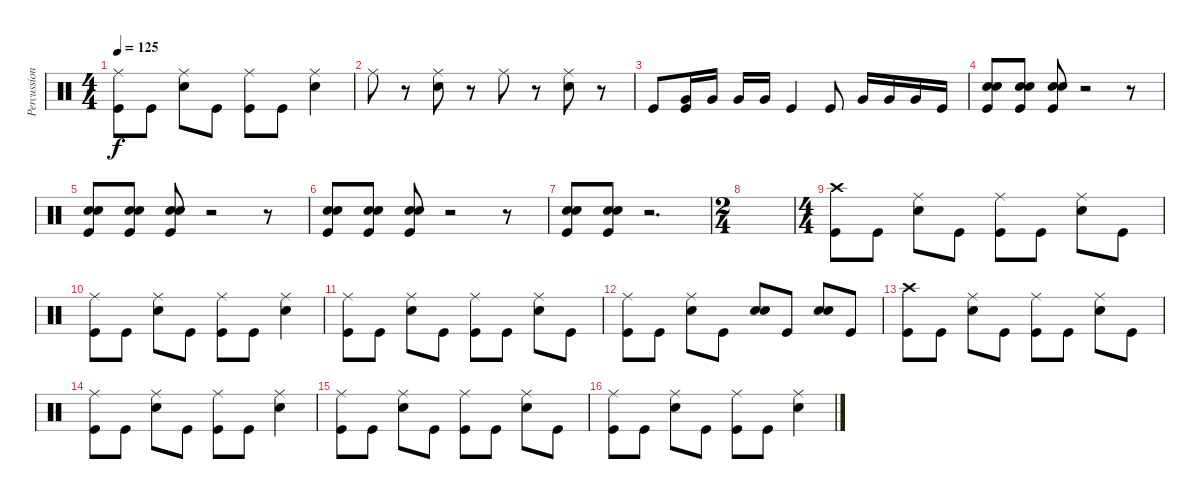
\track ("Percussion" "Percussion") {instrument percussion}
\staff {score}
\articulation defaults
\ts (4 4)
\tempo 125
\clef neutral
\ks c
("Ride (middle)" "Kick (hit)").8{dy f} "Kick (hit)".8 ("Ride (middle)" "Snare (hit) 2").8 "Kick (hit)".8 ("Ride (middle)" "Kick (hit)").8 "Kick (hit)".8 ("Ride (middle)" "Snare (hit) 2").4 |
"Ride (middle)".8 r.8 ("Ride (middle)" "Snare (hit) 2").8 r.8 "Ride (middle)".8 r.8 ("Ride (middle)" "Snare (hit) 2").8 r.8 |
"Kick (hit)".8 ("Very Low Tom (hit)" "Kick (hit)").16 "Very Low Tom (hit)".16 "Very Low Tom (hit)".16 "Very Low Tom (hit)".16 "Kick (hit)".4 "Kick (hit)".8 "Very Low Tom (hit)".16 "Very Low Tom (hit)".16 "Very Low Tom (hit)".16 "Kick (hit)".16 |
("Snare (hit) 2" "Snare (hit) 2" "Kick (hit)").8 ("Snare (hit) 2" "Snare (hit) 2" "Kick (hit)").8 ("Snare (hit) 2" "Snare (hit) 2" "Kick (hit)").8 r.2 r.8 |
("Snare (hit) 2" "Snare (hit) 2" "Kick (hit)").8 ("Snare (hit) 2" "Snare (hit) 2" "Kick (hit)").8 ("Snare (hit) 2" "Snare (hit) 2" "Kick (hit)").8 r.2 r.8 |
("Snare (hit) 2" "Snare (hit) 2" "Kick (hit)").8 ("Snare (hit) 2" "Snare (hit) 2" "Kick (hit)").8 ("Snare (hit) 2" "Snare (hit) 2" "Kick (hit)").8 r.2 r.8 |
("Snare (hit) 2" "Snare (hit) 2" "Kick (hit)").8 ("Snare (hit) 2" "Snare (hit) 2" "Kick (hit)").8 r.2{d} |
\ts (2 4)
|
\ts (4 4)
("Crash high (hit)" "Kick (hit)").8 "Kick (hit)".8 ("Ride (middle)" "Snare (hit) 2").8 "Kick (hit)".8 ("Ride (middle)" "Kick (hit)").8 "Kick (hit)".8 ("Ride (middle)" "Snare (hit) 2").8 "Kick (hit)".8 |
("Ride (middle)" "Kick (hit)").8 "Kick (hit)".8 ("Ride (middle)" "Snare (hit) 2").8 "Kick (hit)".8 ("Ride (middle)" "Kick (hit)").8 "Kick (hit)".8 ("Ride (middle)" "Snare (hit) 2").4 |
("Ride (middle)" "Kick (hit)").8 "Kick (hit)".8 ("Ride (middle)" "Snare (hit) 2").8 "Kick (hit)".8 ("Ride (middle)" "Kick (hit)").8 "Kick (hit)".8 ("Ride (middle)" "Snare (hit) 2").8 "Kick (hit)".8 |
("Ride (middle)" "Kick (hit)").8 "Kick (hit)".8 ("Ride (middle)" "Snare (hit) 2").8 "Kick (hit)".8 ("Snare (hit) 2" "Snare (hit) 2").8 "Kick (hit)".8 ("Snare (hit) 2" "Snare (hit) 2").8 "Kick (hit)".8 |
("Crash high (hit)" "Kick (hit)").8 "Kick (hit)".8 ("Ride (middle)" "Snare (hit) 2").8 "Kick (hit)".8 ("Ride (middle)" "Kick (hit)").8 "Kick (hit)".8 ("Ride (middle)" "Snare (hit) 2").8 "Kick (hit)".8 |
("Ride (middle)" "Kick (hit)").8 "Kick (hit)".8 ("Ride (middle)" "Snare (hit) 2").8 "Kick (hit)".8 ("Ride (middle)" "Kick (hit)").8 "Kick (hit)".8 ("Ride (middle)" "Snare (hit) 2").4 |
("Ride (middle)" "Kick (hit)").8 "Kick (hit)".8 ("Ride (middle)" "Snare (hit) 2").8 "Kick (hit)".8 ("Ride (middle)" "Kick (hit)").8 "Kick (hit)".8 ("Ride (middle)" "Snare (hit) 2").8 "Kick (hit)".8 |
("Ride (middle)" "Kick (hit)").8 "Kick (hit)".8 ("Ride (middle)" "Snare (hit) 2").8 "Kick (hit)".8 ("Ride (middle)" "Kick (hit)").8 "Kick (hit)".8 ("Ride (middle)" "Snare (hit) 2").4
